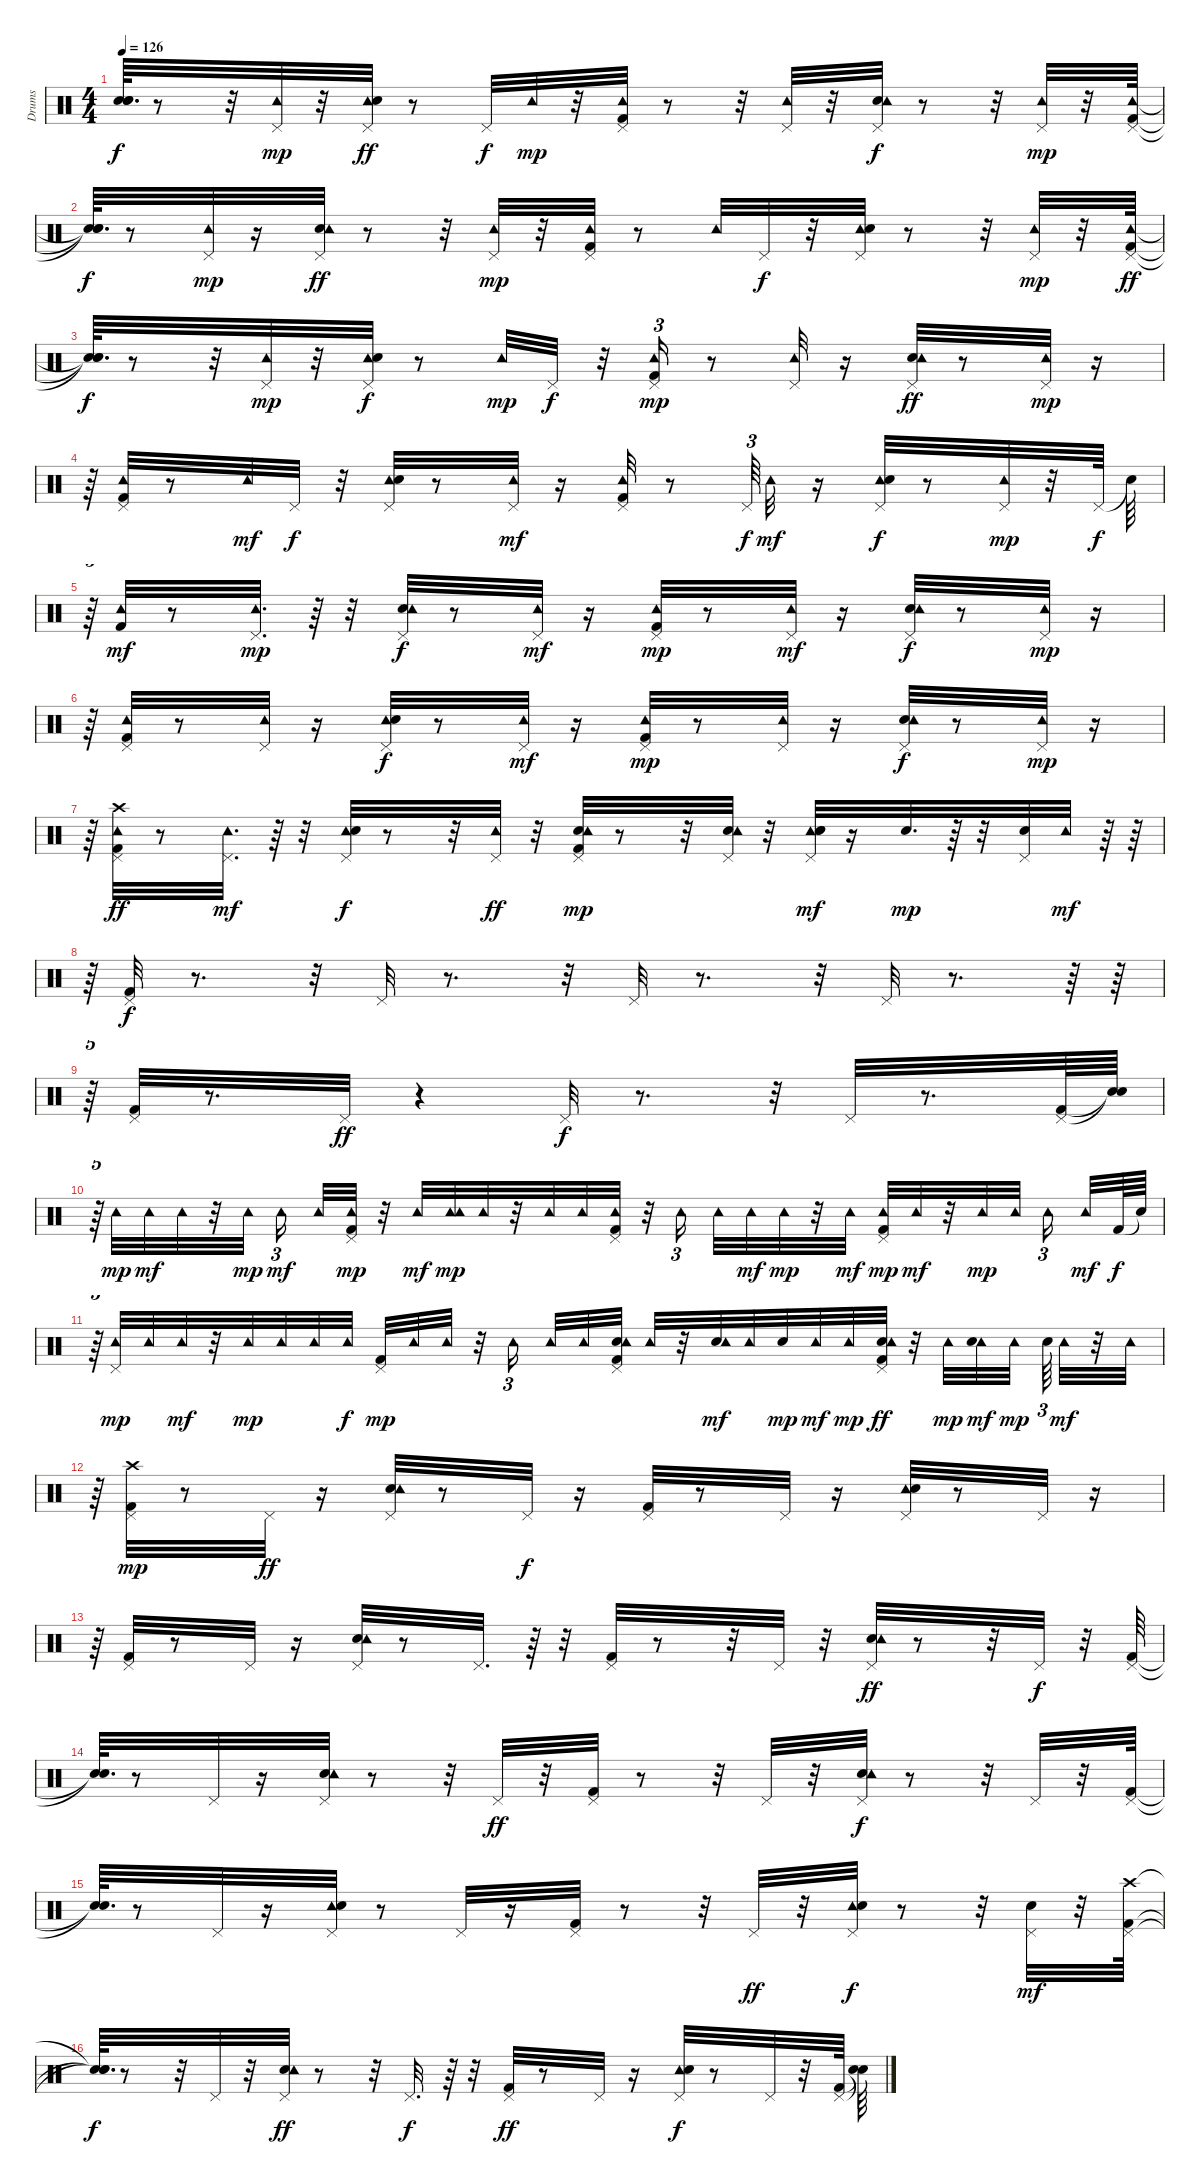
\track ("Drums" "Drums") {instrument percussion}
\staff {score}
\articulation defaults
\ts (4 4)
\tempo 126
\clef neutral
\ks c
("Snare (hit)"{t} "Snare (hit)"{t} "Snare (hit)"{t}).64{d dy f} r.8 r.32 ("Tambourine (hit)" "Pedal Hi-Hat (hit)").32{dy mp} r.32 ("Pedal Hi-Hat (hit)" "Tambourine (hit)" "Electric Snare (hit)").32{dy ff} r.8 "Pedal Hi-Hat (hit)".32{dy f} "Tambourine (hit)".32{dy mp} r.32 ("Kick (hit) 2" "Tambourine (hit)" "Pedal Hi-Hat (hit)").32 r.8 r.32 ("Pedal Hi-Hat (hit)" "Tambourine (hit)").32 r.32 ("Electric Snare (hit)" "Tambourine (hit)" "Pedal Hi-Hat (hit)").32{dy f} r.8 r.32 ("Pedal Hi-Hat (hit)" "Tambourine (hit)").32{dy mp} r.32 ("Kick (hit) 2" "Pedal Hi-Hat (hit)" "Tambourine (hit)").64 |
("Snare (hit)"{t} "Snare (hit)"{t} "Snare (hit)"{t}).64{d dy f} r.8 ("Pedal Hi-Hat (hit)" "Tambourine (hit)").32{dy mp} r.16 ("Electric Snare (hit)" "Pedal Hi-Hat (hit)" "Tambourine (hit)").32{dy ff} r.8 r.32 ("Pedal Hi-Hat (hit)" "Tambourine (hit)").32{dy mp} r.32 ("Pedal Hi-Hat (hit)" "Tambourine (hit)" "Kick (hit) 2").32 r.8 "Tambourine (hit)".32 "Pedal Hi-Hat (hit)".32{dy f} r.32 ("Tambourine (hit)" "Pedal Hi-Hat (hit)" "Electric Snare (hit)").32 r.8 r.32 ("Pedal Hi-Hat (hit)" "Tambourine (hit)").32{dy mp} r.32 ("Kick (hit) 2" "Tambourine (hit)" "Pedal Hi-Hat (hit)").64{dy ff} |
("Snare (hit)"{t} "Snare (hit)"{t} "Snare (hit)"{t}).64{d dy f} r.8 r.32 ("Pedal Hi-Hat (hit)" "Tambourine (hit)").32{dy mp} r.32 ("Tambourine (hit)" "Electric Snare (hit)" "Pedal Hi-Hat (hit)").32{dy f} r.8 "Tambourine (hit)".32{dy mp} "Pedal Hi-Hat (hit)".32{dy f} r.32 ("Kick (hit) 2" "Tambourine (hit)" "Pedal Hi-Hat (hit)").16{tu (3 2) dy mp} r.8 ("Pedal Hi-Hat (hit)" "Tambourine (hit)").32 r.16 ("Electric Snare (hit)" "Tambourine (hit)" "Pedal Hi-Hat (hit)").32{dy ff} r.8 ("Pedal Hi-Hat (hit)" "Tambourine (hit)").32{dy mp} r.16 |
r.64 ("Tambourine (hit)" "Kick (hit) 2" "Pedal Hi-Hat (hit)").32 r.8 "Tambourine (hit)".32{dy mf} "Pedal Hi-Hat (hit)".32{dy f} r.32 ("Pedal Hi-Hat (hit)" "Tambourine (hit)" "Electric Snare (hit)").32 r.8 ("Tambourine (hit)" "Pedal Hi-Hat (hit)").32{dy mf} r.16 ("Kick (hit) 2" "Pedal Hi-Hat (hit)" "Tambourine (hit)").32 r.8 "Pedal Hi-Hat (hit)".64{tu (3 2) dy f} "Tambourine (hit)".32{dy mf} r.16 ("Tambourine (hit)" "Pedal Hi-Hat (hit)" "Electric Snare (hit)").32{dy f} r.8 ("Tambourine (hit)" "Pedal Hi-Hat (hit)").32{dy mp} r.32 "Pedal Hi-Hat (hit)".64{dy f} "Snare (hit)"{t}.64 |
r.64{tu (5 4)} ("Kick (hit) 2" "Tambourine (hit)").32{dy mf} r.8 ("Tambourine (hit)" "Pedal Hi-Hat (hit)").32{d dy mp} r.64 r.32 ("Pedal Hi-Hat (hit)" "Electric Snare (hit)" "Tambourine (hit)").32{dy f} r.8 ("Pedal Hi-Hat (hit)" "Tambourine (hit)").32{dy mf} r.16 ("Kick (hit) 2" "Pedal Hi-Hat (hit)" "Tambourine (hit)").32{dy mp} r.8 ("Tambourine (hit)" "Pedal Hi-Hat (hit)").32{dy mf} r.16 ("Pedal Hi-Hat (hit)" "Electric Snare (hit)" "Tambourine (hit)").32{dy f} r.8 ("Tambourine (hit)" "Pedal Hi-Hat (hit)").32{dy mp} r.16 |
r.64 ("Kick (hit) 2" "Tambourine (hit)" "Pedal Hi-Hat (hit)").32 r.8 ("Pedal Hi-Hat (hit)" "Tambourine (hit)").32 r.16 ("Tambourine (hit)" "Electric Snare (hit)" "Pedal Hi-Hat (hit)").32{dy f} r.8 ("Pedal Hi-Hat (hit)" "Tambourine (hit)").32{dy mf} r.16 ("Tambourine (hit)" "Kick (hit) 2" "Pedal Hi-Hat (hit)").32{dy mp} r.8 ("Pedal Hi-Hat (hit)" "Tambourine (hit)").32 r.16 ("Electric Snare (hit)" "Pedal Hi-Hat (hit)" "Tambourine (hit)").32{dy f} r.8 ("Tambourine (hit)" "Pedal Hi-Hat (hit)").32{dy mp} r.16 |
r.64 ("Pedal Hi-Hat (hit)" "Crash high (hit)" "Tambourine (hit)" "Kick (hit) 2").32{dy ff} r.8 ("Tambourine (hit)" "Pedal Hi-Hat (hit)").32{d dy mf} r.64 r.32 ("Tambourine (hit)" "Electric Snare (hit)" "Pedal Hi-Hat (hit)").32{dy f} r.8 r.32 ("Tambourine (hit)" "Pedal Hi-Hat (hit)").32{dy ff} r.32 ("Kick (hit) 2" "Snare (hit) 2" "Tambourine (hit)" "Pedal Hi-Hat (hit)").32{dy mp} r.8 r.32 ("Snare (hit) 2" "Tambourine (hit)" "Pedal Hi-Hat (hit)").32 r.32 ("Pedal Hi-Hat (hit)" "Tambourine (hit)" "Electric Snare (hit)" "Snare (hit) 2").32{dy mf} r.16 "Snare (hit) 2".32{d dy mp} r.64 r.32 ("Pedal Hi-Hat (hit)" "Snare (hit) 2").32 "Tambourine (hit)".32{dy mf} r.64 r.64 |
r.64{tu (5 4)} ("Kick (hit) 2" "Pedal Hi-Hat (hit)").32{dy f} r.8{d} r.32 "Pedal Hi-Hat (hit)".32 r.8{d} r.32 "Pedal Hi-Hat (hit)".32 r.8{d} r.32 "Pedal Hi-Hat (hit)".32 r.8{d} r.64 r.64 |
r.64{tu (5 4)} ("Pedal Hi-Hat (hit)" "Kick (hit) 2").32 r.8{d} "Pedal Hi-Hat (hit)".32{dy ff} r.4 "Pedal Hi-Hat (hit)".32{dy f} r.8{d} r.32 "Pedal Hi-Hat (hit)".32 r.8{d} ("Kick (hit) 2" "Pedal Hi-Hat (hit)").64 ("Snare (hit)"{t} "Snare (hit)"{t}).64 |
r.64{tu (5 4)} "Tambourine (hit)".32{dy mp} "Tambourine (hit)".32{dy mf} "Tambourine (hit)".32 r.32 "Tambourine (hit)".32{dy mp} "Tambourine (hit)".16{tu (3 2) dy mf} "Tambourine (hit)".32 ("Kick (hit) 2" "Tambourine (hit)" "Pedal Hi-Hat (hit)").32{dy mp} r.32 "Tambourine (hit)".32{dy mf} ("Tambourine (hit)" "Tambourine (hit)").32{dy mp} "Tambourine (hit)".32 r.32 "Tambourine (hit)".32 "Tambourine (hit)".32 ("Pedal Hi-Hat (hit)" "Kick (hit) 2" "Tambourine (hit)").32 r.32 "Tambourine (hit)".16{tu (3 2)} "Tambourine (hit)".32 "Tambourine (hit)".32{dy mf} "Tambourine (hit)".32{dy mp} r.32 "Tambourine (hit)".32{dy mf} ("Tambourine (hit)" "Kick (hit) 2" "Pedal Hi-Hat (hit)").32{dy mp} "Tambourine (hit)".32{dy mf} r.32 "Tambourine (hit)".32{dy mp} "Tambourine (hit)".32 "Tambourine (hit)".16{tu (3 2)} "Tambourine (hit)".32{dy mf} "Kick (hit) 2".64{dy f} "Snare (hit)"{t}.64 |
r.64{tu (5 4)} ("Pedal Hi-Hat (hit)" "Tambourine (hit)").32{dy mp} "Tambourine (hit)".32 "Tambourine (hit)".32{dy mf} r.32 "Tambourine (hit)".32{dy mp} "Tambourine (hit)".32 "Tambourine (hit)".32 "Tambourine (hit)".32{dy f} ("Pedal Hi-Hat (hit)" "Kick (hit) 2").32{dy mp} "Tambourine (hit)".32 "Tambourine (hit)".32 r.32 "Tambourine (hit)".16{tu (3 2)} "Tambourine (hit)".32 "Tambourine (hit)".32 ("Snare (hit) 2" "Kick (hit) 2" "Pedal Hi-Hat (hit)" "Tambourine (hit)").32 "Tambourine (hit)".32 r.32 ("Snare (hit) 2" "Tambourine (hit)").32{dy mf} "Tambourine (hit)".32 "Snare (hit) 2".32{dy mp} "Tambourine (hit)".32{dy mf} "Tambourine (hit)".32{dy mp} ("Snare (hit) 2" "Kick (hit) 2" "Pedal Hi-Hat (hit)" "Tambourine (hit)").32{dy ff} r.32 "Tambourine (hit)".32{dy mp} ("Tambourine (hit)" "Snare (hit) 2").32{dy mf} "Tambourine (hit)".32{dy mp} "Snare (hit) 2".64{tu (3 2)} "Tambourine (hit)".32{dy mf} r.32 "Tambourine (hit)".32 |
r.64 ("Crash high (hit)" "Pedal Hi-Hat (hit)" "Kick (hit) 2").32{dy mp} r.8 "Pedal Hi-Hat (hit)".32{dy ff} r.16 ("Electric Snare (hit)" "Tambourine (hit)" "Pedal Hi-Hat (hit)").32 r.8 "Pedal Hi-Hat (hit)".32{dy f} r.16 ("Pedal Hi-Hat (hit)" "Kick (hit) 2").32 r.8 "Pedal Hi-Hat (hit)".32 r.16 ("Tambourine (hit)" "Pedal Hi-Hat (hit)" "Electric Snare (hit)").32 r.8 "Pedal Hi-Hat (hit)".32 r.16 |
r.64 ("Kick (hit) 2" "Pedal Hi-Hat (hit)").32 r.8 "Pedal Hi-Hat (hit)".32 r.16 ("Pedal Hi-Hat (hit)" "Electric Snare (hit)" "Tambourine (hit)").32 r.8 "Pedal Hi-Hat (hit)".32{d} r.64 r.32 ("Pedal Hi-Hat (hit)" "Kick (hit) 2").32 r.8 r.32 "Pedal Hi-Hat (hit)".32 r.32 ("Electric Snare (hit)" "Pedal Hi-Hat (hit)" "Tambourine (hit)").32{dy ff} r.8 r.32 "Pedal Hi-Hat (hit)".32{dy f} r.32 ("Pedal Hi-Hat (hit)" "Kick (hit) 2").64 |
("Snare (hit)"{t} "Snare (hit)"{t}).64{d} r.8 "Pedal Hi-Hat (hit)".32 r.16 ("Electric Snare (hit)" "Pedal Hi-Hat (hit)" "Tambourine (hit)").32 r.8 r.32 "Pedal Hi-Hat (hit)".32{dy ff} r.32 ("Pedal Hi-Hat (hit)" "Kick (hit) 2").32 r.8 r.32 "Pedal Hi-Hat (hit)".32 r.32 ("Electric Snare (hit)" "Pedal Hi-Hat (hit)" "Tambourine (hit)").32{dy f} r.8 r.32 "Pedal Hi-Hat (hit)".32 r.32 ("Pedal Hi-Hat (hit)" "Kick (hit) 2").64 |
("Snare (hit)"{t} "Snare (hit)"{t}).64{d} r.8 "Pedal Hi-Hat (hit)".32 r.16 ("Tambourine (hit)" "Electric Snare (hit)" "Pedal Hi-Hat (hit)").32 r.8 "Pedal Hi-Hat (hit)".32 r.16 ("Pedal Hi-Hat (hit)" "Kick (hit) 2").32 r.8 r.32 "Pedal Hi-Hat (hit)".32{dy ff} r.32 ("Tambourine (hit)" "Electric Snare (hit)" "Pedal Hi-Hat (hit)").32{dy f} r.8 r.32 ("Pedal Hi-Hat (hit)" "Electric Snare (hit)").32{dy mf} r.32 ("Kick (hit) 2" "Pedal Hi-Hat (hit)" "Crash high (hit)").64 |
("Snare (hit)"{t} "Snare (hit)"{t} "Snare (hit)"{t}).64{d dy f} r.8 r.32 "Pedal Hi-Hat (hit)".32 r.32 ("Pedal Hi-Hat (hit)" "Electric Snare (hit)" "Tambourine (hit)").32{dy ff} r.8 r.32 "Pedal Hi-Hat (hit)".32{d dy f} r.64 r.32 ("Kick (hit) 2" "Pedal Hi-Hat (hit)").32{dy ff} r.8 "Pedal Hi-Hat (hit)".32 r.16 ("Tambourine (hit)" "Electric Snare (hit)" "Pedal Hi-Hat (hit)").32{dy f} r.8 "Pedal Hi-Hat (hit)".32 r.32 ("Kick (hit) 2" "Pedal Hi-Hat (hit)").64 ("Snare (hit)"{t} "Snare (hit)"{t}).64
